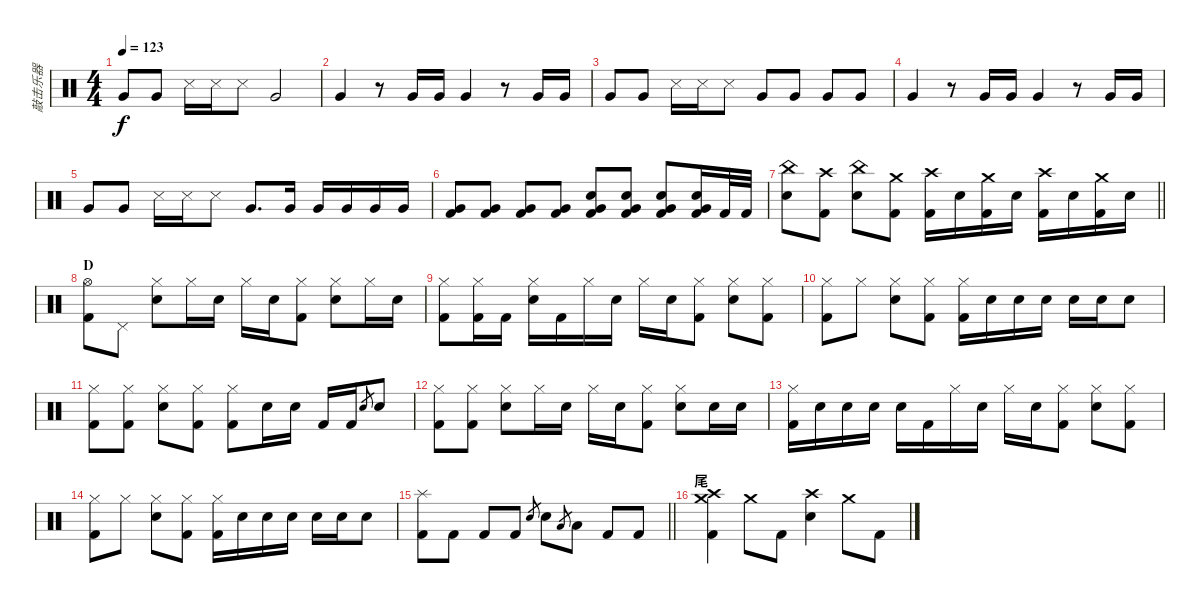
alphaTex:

\track ("敲击乐器" "敲击乐器") {instrument percussion}
\staff {score}
\articulation defaults
\ts (4 4)
\tempo 123
\clef neutral
\ks c "Very Low Tom (hit)".8{dy f} "Very Low Tom (hit)".8 "Snare (side stick) 3".16 "Snare (side stick) 3".16 "Snare (side stick) 3".8 "Very Low Tom (hit)".2
|
"Very Low Tom (hit)".4 r.8 "Very Low Tom (hit)".16 "Very Low Tom (hit)".16 "Very Low Tom (hit)".4 r.8 "Very Low Tom (hit)".16 "Very Low Tom (hit)".16 |
"Very Low Tom (hit)".8 "Very Low Tom (hit)".8 "Snare (side stick) 3".16 "Snare (side stick) 3".16 "Snare (side stick) 3".8 "Very Low Tom (hit)".8 "Very Low Tom (hit)".8 "Very Low Tom (hit)".8 "Very Low Tom (hit)".8 |
"Very Low Tom (hit)".4 r.8 "Very Low Tom (hit)".16 "Very Low Tom (hit)".16 "Very Low Tom (hit)".4 r.8 "Very Low Tom (hit)".16 "Very Low Tom (hit)".16 |
"Very Low Tom (hit)".8 "Very Low Tom (hit)".8 "Snare (side stick) 3".16 "Snare (side stick) 3".16 "Snare (side stick) 3".8 "Very Low Tom (hit)".8{d} "Very Low Tom (hit)".16 "Very Low Tom (hit)".16 "Very Low Tom (hit)".16 "Very Low Tom (hit)".16 "Very Low Tom (hit)".16 |
("Very Low Tom (hit)" "Kick (hit) 2").8 ("Very Low Tom (hit)" "Kick (hit) 2").8 ("Very Low Tom (hit)" "Kick (hit) 2").8 ("Very Low Tom (hit)" "Kick (hit) 2").8 ("Electric Snare (hit)" "Very Low Tom (hit)" "Kick (hit) 2").8 ("Electric Snare (hit)" "Very Low Tom (hit)" "Kick (hit) 2").8 ("Electric Snare (hit)" "Very Low Tom (hit)" "Kick (hit) 2").8 ("Electric Snare (hit)" "Very Low Tom (hit)" "Kick (hit) 2").16 "Kick (hit) 2".32 "Kick (hit) 2".32 |
\barLineRight lightlight
("China (hit)" "Electric Snare (hit)").8 ("Crash high (hit)" "Kick (hit) 2").8 ("China (hit)" "Electric Snare (hit)").8 ("Crash medium (hit)" "Kick (hit) 2").8 ("Crash high (hit)" "Kick (hit) 2").16 "Electric Snare (hit)".16 ("Crash medium (hit)" "Kick (hit) 2").16 "Electric Snare (hit)".16 ("Crash high (hit)" "Kick (hit) 2").16 "Electric Snare (hit)".16 ("Crash medium (hit)" "Kick (hit) 2").16 "Electric Snare (hit)".16 |
\section ("" "D")
("Hi-Hat (open)" "Kick (hit) 2").8 "Pedal Hi-Hat (hit)".8 ("Hi-Hat (closed)" "Electric Snare (hit)").8 "Hi-Hat (closed)".16 "Electric Snare (hit)".16 "Hi-Hat (closed)".16 "Electric Snare (hit)".16 ("Hi-Hat (closed)" "Kick (hit) 2").8 ("Hi-Hat (closed)" "Electric Snare (hit)").8 "Hi-Hat (closed)".16 "Electric Snare (hit)".16 |
("Hi-Hat (closed)" "Kick (hit) 2").8 ("Hi-Hat (closed)" "Kick (hit) 2").16 "Kick (hit) 2".16 ("Hi-Hat (closed)" "Electric Snare (hit)").16 "Kick (hit) 2".16 "Hi-Hat (closed)".16 "Electric Snare (hit)".16 "Hi-Hat (closed)".16 "Electric Snare (hit)".16 ("Hi-Hat (closed)" "Kick (hit) 2").8 ("Hi-Hat (closed)" "Electric Snare (hit)").8 ("Hi-Hat (closed)" "Kick (hit) 2").8 |
("Hi-Hat (closed)" "Kick (hit) 2").8 "Hi-Hat (closed)".8 ("Hi-Hat (closed)" "Electric Snare (hit)").8 ("Hi-Hat (closed)" "Kick (hit) 2").8 ("Hi-Hat (closed)" "Kick (hit) 2").16 "Electric Snare (hit)".16 "Electric Snare (hit)".16 "Electric Snare (hit)".16 "Electric Snare (hit)".16 "Electric Snare (hit)".16 "Electric Snare (hit)".8 |
("Hi-Hat (closed)" "Kick (hit) 2").8 ("Hi-Hat (closed)" "Kick (hit) 2").8 ("Hi-Hat (closed)" "Electric Snare (hit)").8 ("Hi-Hat (closed)" "Kick (hit) 2").8 ("Hi-Hat (closed)" "Kick (hit) 2").8 "Electric Snare (hit)".16 "Electric Snare (hit)".16 "Kick (hit) 2".16 "Kick (hit) 2".16 "Electric Snare (hit)".8{gr} "Electric Snare (hit)".8 |
("Hi-Hat (closed)" "Kick (hit) 2").8 ("Hi-Hat (closed)" "Kick (hit) 2").8 ("Hi-Hat (closed)" "Electric Snare (hit)").8 "Hi-Hat (closed)".16 "Electric Snare (hit)".16 "Hi-Hat (closed)".16 "Electric Snare (hit)".16 ("Hi-Hat (closed)" "Kick (hit) 2").8 ("Hi-Hat (closed)" "Electric Snare (hit)").8 "Electric Snare (hit)".16 "Electric Snare (hit)".16 |
("Hi-Hat (closed)" "Kick (hit) 2").16 "Electric Snare (hit)".16 "Electric Snare (hit)".16 "Electric Snare (hit)".16 "Electric Snare (hit)".16 "Kick (hit) 2".16 "Hi-Hat (closed)".16 "Electric Snare (hit)".16 "Hi-Hat (closed)".16 "Electric Snare (hit)".16 ("Hi-Hat (closed)" "Kick (hit) 2").8 ("Hi-Hat (closed)" "Electric Snare (hit)").8 ("Hi-Hat (closed)" "Kick (hit) 2").8 |
("Hi-Hat (closed)" "Kick (hit) 2").8 "Hi-Hat (closed)".8 ("Hi-Hat (closed)" "Electric Snare (hit)").8 ("Hi-Hat (closed)" "Kick (hit) 2").8 ("Hi-Hat (closed)" "Kick (hit) 2").16 "Electric Snare (hit)".16 "Electric Snare (hit)".16 "Electric Snare (hit)".16 "Electric Snare (hit)".16 "Electric Snare (hit)".16 "Electric Snare (hit)".8 |
\barLineRight lightlight
("Splash (hit)" "Kick (hit) 2").8 "Kick (hit) 2".8 "Kick (hit) 2".8 "Kick (hit) 2".8 "Electric Snare (hit)".8{gr} "Electric Snare (hit)".8 "Low Tom (hit)".8{gr} "Low Tom (hit)".8 "Kick (hit) 2".8 "Kick (hit) 2".8 |
\section ("" "尾")
("Crash high (hit)" "Crash medium (hit)" "Kick (hit) 2").4 "Crash medium (hit)".8 "Kick (hit) 2".8 ("Crash high (hit)" "Electric Snare (hit)").4 "Crash medium (hit)".8 "Kick (hit) 2".8
